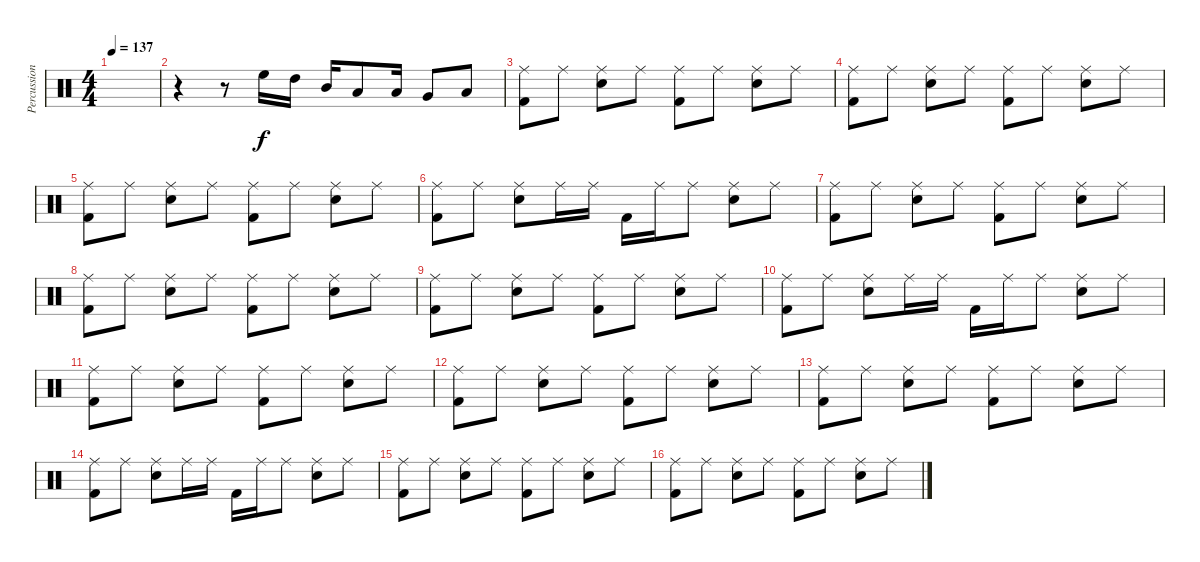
\track ("Percussion" "Percussion") {instrument percussion}
\staff {score}
\articulation defaults
\ts (4 4)
\tempo 137
\clef neutral
\ks c
|
r.4 r.8 "High Floor Tom (hit)".16 "High Tom (hit)".16 "Mid Tom (hit)".16 "Low Tom (hit)".8 "Low Tom (hit)".16 "Very Low Tom (hit)".8 "Low Floor Tom (hit)".8 |
("Ride (middle)" "Kick (hit) 2").8 "Ride (middle)".8 ("Ride (middle)" "Snare (hit) 2").8 "Ride (middle)".8 ("Ride (middle)" "Kick (hit) 2").8 "Ride (middle)".8 ("Ride (middle)" "Snare (hit) 2").8 "Ride (middle)".8 |
("Ride (middle)" "Kick (hit) 2").8 "Ride (middle)".8 ("Ride (middle)" "Snare (hit) 2").8 "Ride (middle)".8 ("Ride (middle)" "Kick (hit) 2").8 "Ride (middle)".8 ("Ride (middle)" "Snare (hit) 2").8 "Ride (middle)".8 |
("Ride (middle)" "Kick (hit) 2").8 "Ride (middle)".8 ("Ride (middle)" "Snare (hit) 2").8 "Ride (middle)".8 ("Ride (middle)" "Kick (hit) 2").8 "Ride (middle)".8 ("Ride (middle)" "Snare (hit) 2").8 "Ride (middle)".8 |
("Ride (middle)" "Kick (hit) 2").8 "Ride (middle)".8 ("Ride (middle)" "Snare (hit) 2").8 "Ride (middle)".16 "Ride (middle)".16 "Kick (hit) 2".16 "Ride (middle)".16 "Ride (middle)".8 ("Ride (middle)" "Snare (hit) 2").8 "Ride (middle)".8 |
("Ride (middle)" "Kick (hit) 2").8 "Ride (middle)".8 ("Ride (middle)" "Snare (hit) 2").8 "Ride (middle)".8 ("Ride (middle)" "Kick (hit) 2").8 "Ride (middle)".8 ("Ride (middle)" "Snare (hit) 2").8 "Ride (middle)".8 |
("Ride (middle)" "Kick (hit) 2").8 "Ride (middle)".8 ("Ride (middle)" "Snare (hit) 2").8 "Ride (middle)".8 ("Ride (middle)" "Kick (hit) 2").8 "Ride (middle)".8 ("Ride (middle)" "Snare (hit) 2").8 "Ride (middle)".8 |
("Ride (middle)" "Kick (hit) 2").8 "Ride (middle)".8 ("Ride (middle)" "Snare (hit) 2").8 "Ride (middle)".8 ("Ride (middle)" "Kick (hit) 2").8 "Ride (middle)".8 ("Ride (middle)" "Snare (hit) 2").8 "Ride (middle)".8 |
("Ride (middle)" "Kick (hit) 2").8 "Ride (middle)".8 ("Ride (middle)" "Snare (hit) 2").8 "Ride (middle)".16 "Ride (middle)".16 "Kick (hit) 2".16 "Ride (middle)".16 "Ride (middle)".8 ("Ride (middle)" "Snare (hit) 2").8 "Ride (middle)".8 |
("Ride (middle)" "Kick (hit) 2").8 "Ride (middle)".8 ("Ride (middle)" "Snare (hit) 2").8 "Ride (middle)".8 ("Ride (middle)" "Kick (hit) 2").8 "Ride (middle)".8 ("Ride (middle)" "Snare (hit) 2").8 "Ride (middle)".8 |
("Ride (middle)" "Kick (hit) 2").8 "Ride (middle)".8 ("Ride (middle)" "Snare (hit) 2").8 "Ride (middle)".8 ("Ride (middle)" "Kick (hit) 2").8 "Ride (middle)".8 ("Ride (middle)" "Snare (hit) 2").8 "Ride (middle)".8 |
("Ride (middle)" "Kick (hit) 2").8 "Ride (middle)".8 ("Ride (middle)" "Snare (hit) 2").8 "Ride (middle)".8 ("Ride (middle)" "Kick (hit) 2").8 "Ride (middle)".8 ("Ride (middle)" "Snare (hit) 2").8 "Ride (middle)".8 |
("Ride (middle)" "Kick (hit) 2").8 "Ride (middle)".8 ("Ride (middle)" "Snare (hit) 2").8 "Ride (middle)".16 "Ride (middle)".16 "Kick (hit) 2".16 "Ride (middle)".16 "Ride (middle)".8 ("Ride (middle)" "Snare (hit) 2").8 "Ride (middle)".8 |
("Ride (middle)" "Kick (hit) 2").8 "Ride (middle)".8 ("Ride (middle)" "Snare (hit) 2").8 "Ride (middle)".8 ("Ride (middle)" "Kick (hit) 2").8 "Ride (middle)".8 ("Ride (middle)" "Snare (hit) 2").8 "Ride (middle)".8 |
("Ride (middle)" "Kick (hit) 2").8 "Ride (middle)".8 ("Ride (middle)" "Snare (hit) 2").8 "Ride (middle)".8 ("Ride (middle)" "Kick (hit) 2").8 "Ride (middle)".8 ("Ride (middle)" "Snare (hit) 2").8 "Ride (middle)".8
